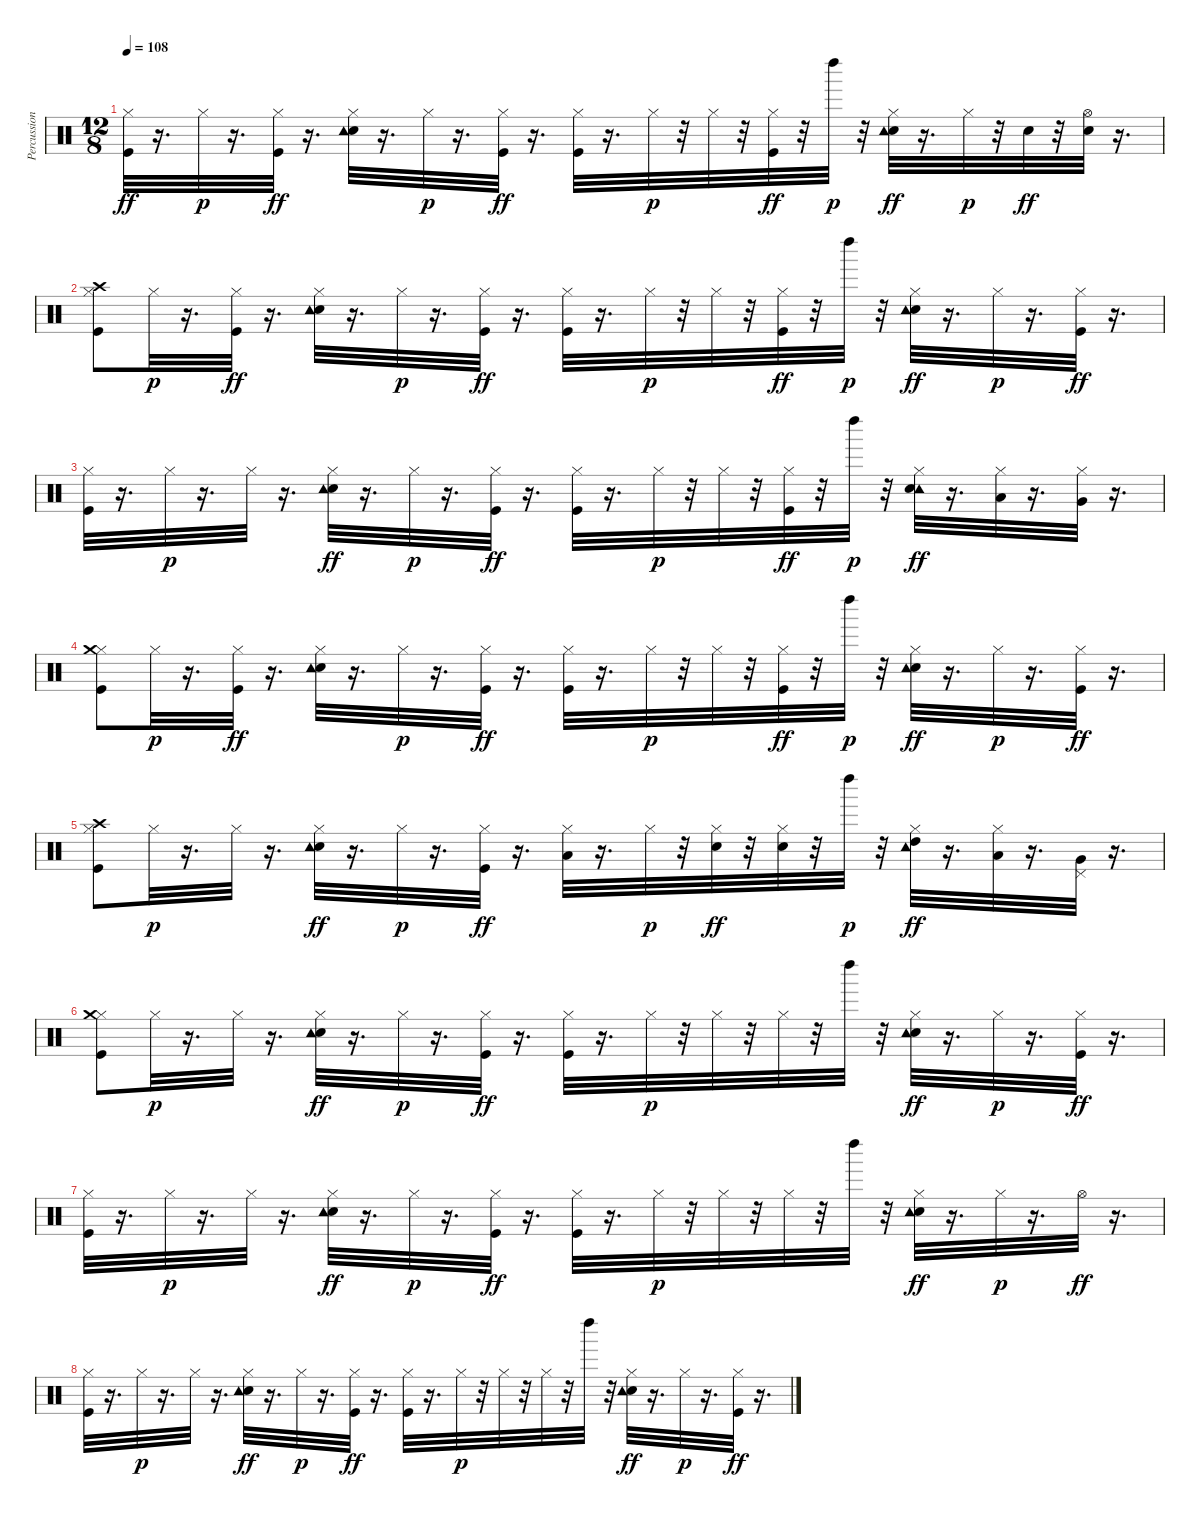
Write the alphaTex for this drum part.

\track ("Percussion" "Percussion") {instrument percussion}
\staff {score}
\articulation defaults
\ts (12 8)
\tempo 108
\clef neutral
\ks c
("Hi-Hat (closed)" "Kick (hit)").32{dy ff} r.16{d} "Hi-Hat (closed)".32{dy p} r.16{d} ("Hi-Hat (closed)" "Kick (hit)").32{dy ff} r.16{d} ("Hi-Hat (closed)" "Snare (hit) 2" "Tambourine (hit)").32 r.16{d} "Hi-Hat (closed)".32{dy p} r.16{d} ("Hi-Hat (closed)" "Kick (hit)").32{dy ff} r.16{d} ("Hi-Hat (closed)" "Kick (hit)").32 r.16{d} "Hi-Hat (closed)".32{dy p} r.32 "Hi-Hat (closed)".32 r.32 ("Hi-Hat (closed)" "Kick (hit)").32{dy ff} r.32 "Left Maraca (hit)".32{dy p} r.32 ("Hi-Hat (closed)" "Snare (hit) 2" "Tambourine (hit)").32{dy ff} r.16{d} "Hi-Hat (closed)".32{dy p} r.32 "Snare (hit) 2".32{dy ff} r.32 ("Hi-Hat (open)" "Snare (hit) 2").32 r.16{d} |
("Hi-Hat (closed)" "Kick (hit)" "Crash high (hit)").8 "Hi-Hat (closed)".32{dy p} r.16{d} ("Hi-Hat (closed)" "Kick (hit)").32{dy ff} r.16{d} ("Hi-Hat (closed)" "Snare (hit) 2" "Tambourine (hit)").32 r.16{d} "Hi-Hat (closed)".32{dy p} r.16{d} ("Hi-Hat (closed)" "Kick (hit)").32{dy ff} r.16{d} ("Hi-Hat (closed)" "Kick (hit)").32 r.16{d} "Hi-Hat (closed)".32{dy p} r.32 "Hi-Hat (closed)".32 r.32 ("Hi-Hat (closed)" "Kick (hit)").32{dy ff} r.32 "Left Maraca (hit)".32{dy p} r.32 ("Hi-Hat (closed)" "Snare (hit) 2" "Tambourine (hit)").32{dy ff} r.16{d} "Hi-Hat (closed)".32{dy p} r.16{d} ("Hi-Hat (closed)" "Kick (hit)").32{dy ff} r.16{d} |
("Hi-Hat (closed)" "Kick (hit)").32 r.16{d} "Hi-Hat (closed)".32{dy p} r.16{d} "Hi-Hat (closed)".32 r.16{d} ("Hi-Hat (closed)" "Snare (hit) 2" "Tambourine (hit)").32{dy ff} r.16{d} "Hi-Hat (closed)".32{dy p} r.16{d} ("Hi-Hat (closed)" "Kick (hit)").32{dy ff} r.16{d} ("Hi-Hat (closed)" "Kick (hit)").32 r.16{d} "Hi-Hat (closed)".32{dy p} r.32 "Hi-Hat (closed)".32 r.32 ("Hi-Hat (closed)" "Kick (hit)").32{dy ff} r.32 "Left Maraca (hit)".32{dy p} r.32 ("Hi-Hat (closed)" "Tambourine (hit)" "Snare (hit) 2").32{dy ff} r.16{d} ("Hi-Hat (closed)" "Low Tom (hit)").32 r.16{d} ("Hi-Hat (closed)" "Very Low Tom (hit)").32 r.16{d} |
("Hi-Hat (closed)" "Kick (hit)" "Crash medium (hit)").8 "Hi-Hat (closed)".32{dy p} r.16{d} ("Hi-Hat (closed)" "Kick (hit)").32{dy ff} r.16{d} ("Hi-Hat (closed)" "Snare (hit) 2" "Tambourine (hit)").32 r.16{d} "Hi-Hat (closed)".32{dy p} r.16{d} ("Hi-Hat (closed)" "Kick (hit)").32{dy ff} r.16{d} ("Hi-Hat (closed)" "Kick (hit)").32 r.16{d} "Hi-Hat (closed)".32{dy p} r.32 "Hi-Hat (closed)".32 r.32 ("Hi-Hat (closed)" "Kick (hit)").32{dy ff} r.32 "Left Maraca (hit)".32{dy p} r.32 ("Hi-Hat (closed)" "Snare (hit) 2" "Tambourine (hit)").32{dy ff} r.16{d} "Hi-Hat (closed)".32{dy p} r.16{d} ("Hi-Hat (closed)" "Kick (hit)").32{dy ff} r.16{d} |
("Hi-Hat (closed)" "Kick (hit)" "Crash high (hit)").8 "Hi-Hat (closed)".32{dy p} r.16{d} "Hi-Hat (closed)".32 r.16{d} ("Hi-Hat (closed)" "Snare (hit) 2" "Tambourine (hit)").32{dy ff} r.16{d} "Hi-Hat (closed)".32{dy p} r.16{d} ("Hi-Hat (closed)" "Kick (hit)").32{dy ff} r.16{d} ("Hi-Hat (closed)" "Low Tom (hit)").32 r.16{d} "Hi-Hat (closed)".32{dy p} r.32 ("Hi-Hat (closed)" "Snare (hit) 2").32{dy ff} r.32 ("Hi-Hat (closed)" "Snare (hit) 2").32 r.32 "Left Maraca (hit)".32{dy p} r.32 ("Hi-Hat (closed)" "Tambourine (hit)" "High Tom (hit)").32{dy ff} r.16{d} ("Hi-Hat (closed)" "Low Tom (hit)").32 r.16{d} ("Very Low Tom (hit)" "Pedal Hi-Hat (hit)").32 r.16{d} |
("Hi-Hat (closed)" "Kick (hit)" "Crash medium (hit)").8 "Hi-Hat (closed)".32{dy p} r.16{d} "Hi-Hat (closed)".32 r.16{d} ("Hi-Hat (closed)" "Snare (hit) 2" "Tambourine (hit)").32{dy ff} r.16{d} "Hi-Hat (closed)".32{dy p} r.16{d} ("Hi-Hat (closed)" "Kick (hit)").32{dy ff} r.16{d} ("Hi-Hat (closed)" "Kick (hit)").32 r.16{d} "Hi-Hat (closed)".32{dy p} r.32 "Hi-Hat (closed)".32 r.32 "Hi-Hat (closed)".32 r.32 "Left Maraca (hit)".32 r.32 ("Hi-Hat (closed)" "Snare (hit) 2" "Tambourine (hit)").32{dy ff} r.16{d} "Hi-Hat (closed)".32{dy p} r.16{d} ("Hi-Hat (closed)" "Kick (hit)").32{dy ff} r.16{d} |
("Hi-Hat (closed)" "Kick (hit)").32 r.16{d} "Hi-Hat (closed)".32{dy p} r.16{d} "Hi-Hat (closed)".32 r.16{d} ("Hi-Hat (closed)" "Snare (hit) 2" "Tambourine (hit)").32{dy ff} r.16{d} "Hi-Hat (closed)".32{dy p} r.16{d} ("Hi-Hat (closed)" "Kick (hit)").32{dy ff} r.16{d} ("Hi-Hat (closed)" "Kick (hit)").32 r.16{d} "Hi-Hat (closed)".32{dy p} r.32 "Hi-Hat (closed)".32 r.32 "Hi-Hat (closed)".32 r.32 "Left Maraca (hit)".32 r.32 ("Hi-Hat (closed)" "Snare (hit) 2" "Tambourine (hit)").32{dy ff} r.16{d} "Hi-Hat (closed)".32{dy p} r.16{d} "Hi-Hat (open)".32{dy ff} r.16{d} |
("Hi-Hat (closed)" "Kick (hit)").32 r.16{d} "Hi-Hat (closed)".32{dy p} r.16{d} "Hi-Hat (closed)".32 r.16{d} ("Hi-Hat (closed)" "Snare (hit) 2" "Tambourine (hit)").32{dy ff} r.16{d} "Hi-Hat (closed)".32{dy p} r.16{d} ("Hi-Hat (closed)" "Kick (hit)").32{dy ff} r.16{d} ("Hi-Hat (closed)" "Kick (hit)").32 r.16{d} "Hi-Hat (closed)".32{dy p} r.32 "Hi-Hat (closed)".32 r.32 "Hi-Hat (closed)".32 r.32 "Left Maraca (hit)".32 r.32 ("Hi-Hat (closed)" "Snare (hit) 2" "Tambourine (hit)").32{dy ff} r.16{d} "Hi-Hat (closed)".32{dy p} r.16{d} ("Hi-Hat (closed)" "Kick (hit)").32{dy ff} r.16{d}
